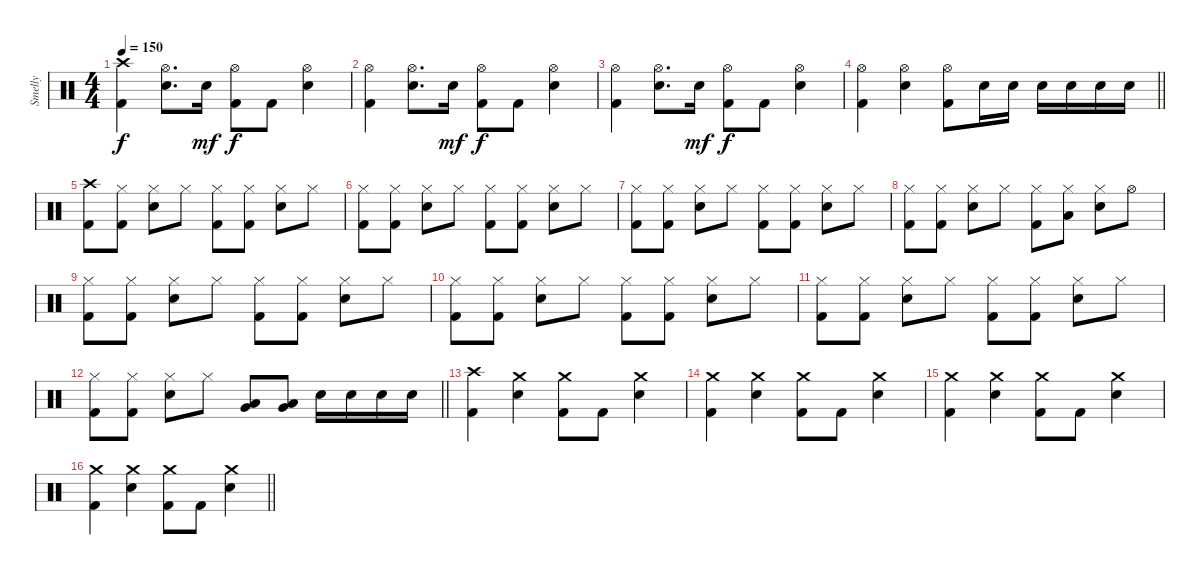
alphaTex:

\track ("Smelly" "Smelly") {instrument percussion}
\staff {score}
\articulation defaults
\ts (4 4)
\tempo 150
\clef neutral
\ks c
("Crash high (hit)" "Kick (hit) 2").4{dy f} ("Hi-Hat (open)" "Electric Snare (hit)").8{d} "Electric Snare (hit)".16{dy mf} ("Hi-Hat (open)" "Kick (hit) 2").8{dy f} "Kick (hit) 2".8 ("Hi-Hat (open)" "Electric Snare (hit)").4 |
("Hi-Hat (open)" "Kick (hit) 2").4 ("Hi-Hat (open)" "Electric Snare (hit)").8{d} "Electric Snare (hit)".16{dy mf} ("Hi-Hat (open)" "Kick (hit) 2").8{dy f} "Kick (hit) 2".8 ("Hi-Hat (open)" "Electric Snare (hit)").4 |
("Hi-Hat (open)" "Kick (hit) 2").4 ("Hi-Hat (open)" "Electric Snare (hit)").8{d} "Electric Snare (hit)".16{dy mf} ("Hi-Hat (open)" "Kick (hit) 2").8{dy f} "Kick (hit) 2".8 ("Hi-Hat (open)" "Electric Snare (hit)").4 |
\barLineRight lightlight
("Hi-Hat (open)" "Kick (hit) 2").4 ("Hi-Hat (open)" "Electric Snare (hit)").4 ("Hi-Hat (open)" "Kick (hit) 2").8 "Electric Snare (hit)".16 "Electric Snare (hit)".16 "Electric Snare (hit)".16 "Electric Snare (hit)".16 "Electric Snare (hit)".16 "Electric Snare (hit)".16 |
\section ("" "")
("Crash high (hit)" "Kick (hit) 2").8 ("Hi-Hat (closed)" "Kick (hit) 2").8 ("Hi-Hat (closed)" "Electric Snare (hit)").8 "Hi-Hat (closed)".8 ("Hi-Hat (closed)" "Kick (hit) 2").8 ("Hi-Hat (closed)" "Kick (hit) 2").8 ("Hi-Hat (closed)" "Electric Snare (hit)").8 "Hi-Hat (closed)".8 |
("Hi-Hat (closed)" "Kick (hit) 2").8 ("Hi-Hat (closed)" "Kick (hit) 2").8 ("Hi-Hat (closed)" "Electric Snare (hit)").8 "Hi-Hat (closed)".8 ("Hi-Hat (closed)" "Kick (hit) 2").8 ("Hi-Hat (closed)" "Kick (hit) 2").8 ("Hi-Hat (closed)" "Electric Snare (hit)").8 "Hi-Hat (closed)".8 |
("Hi-Hat (closed)" "Kick (hit) 2").8 ("Hi-Hat (closed)" "Kick (hit) 2").8 ("Hi-Hat (closed)" "Electric Snare (hit)").8 "Hi-Hat (closed)".8 ("Hi-Hat (closed)" "Kick (hit) 2").8 ("Hi-Hat (closed)" "Kick (hit) 2").8 ("Hi-Hat (closed)" "Electric Snare (hit)").8 "Hi-Hat (closed)".8 |
("Hi-Hat (closed)" "Kick (hit) 2").8 ("Hi-Hat (closed)" "Kick (hit) 2").8 ("Hi-Hat (closed)" "Electric Snare (hit)").8 "Hi-Hat (closed)".8 ("Hi-Hat (closed)" "Kick (hit) 2").8 ("Hi-Hat (closed)" "Low Tom (hit)").8 ("Hi-Hat (closed)" "Electric Snare (hit)").8 "Hi-Hat (open)".8 |
("Hi-Hat (closed)" "Kick (hit) 2").8 ("Hi-Hat (closed)" "Kick (hit) 2").8 ("Hi-Hat (closed)" "Electric Snare (hit)").8 "Hi-Hat (closed)".8 ("Hi-Hat (closed)" "Kick (hit) 2").8 ("Hi-Hat (closed)" "Kick (hit) 2").8 ("Hi-Hat (closed)" "Electric Snare (hit)").8 "Hi-Hat (closed)".8 |
("Hi-Hat (closed)" "Kick (hit) 2").8 ("Hi-Hat (closed)" "Kick (hit) 2").8 ("Hi-Hat (closed)" "Electric Snare (hit)").8 "Hi-Hat (closed)".8 ("Hi-Hat (closed)" "Kick (hit) 2").8 ("Hi-Hat (closed)" "Kick (hit) 2").8 ("Hi-Hat (closed)" "Electric Snare (hit)").8 "Hi-Hat (closed)".8 |
("Hi-Hat (closed)" "Kick (hit) 2").8 ("Hi-Hat (closed)" "Kick (hit) 2").8 ("Hi-Hat (closed)" "Electric Snare (hit)").8 "Hi-Hat (closed)".8 ("Hi-Hat (closed)" "Kick (hit) 2").8 ("Hi-Hat (closed)" "Kick (hit) 2").8 ("Hi-Hat (closed)" "Electric Snare (hit)").8 "Hi-Hat (closed)".8 |
\barLineRight lightlight
("Hi-Hat (closed)" "Kick (hit) 2").8 ("Hi-Hat (closed)" "Kick (hit) 2").8 ("Hi-Hat (closed)" "Electric Snare (hit)").8 "Hi-Hat (closed)".8 ("Very Low Tom (hit)" "Low Floor Tom (hit)").8 ("Very Low Tom (hit)" "Low Floor Tom (hit)").8 "Electric Snare (hit)".16 "Electric Snare (hit)".16 "Electric Snare (hit)".16 "Electric Snare (hit)".16 |
\section ("" "")
("Crash high (hit)" "Kick (hit) 2").4 ("Crash medium (hit)" "Electric Snare (hit)").4 ("Crash medium (hit)" "Kick (hit) 2").8 "Kick (hit) 2".8 ("Crash medium (hit)" "Electric Snare (hit)").4 |
("Crash medium (hit)" "Kick (hit) 2").4 ("Crash medium (hit)" "Electric Snare (hit)").4 ("Crash medium (hit)" "Kick (hit) 2").8 "Kick (hit) 2".8 ("Crash medium (hit)" "Electric Snare (hit)").4 |
("Crash medium (hit)" "Kick (hit) 2").4 ("Crash medium (hit)" "Electric Snare (hit)").4 ("Crash medium (hit)" "Kick (hit) 2").8 "Kick (hit) 2".8 ("Crash medium (hit)" "Electric Snare (hit)").4 |
\barLineRight lightlight
("Crash medium (hit)" "Kick (hit) 2").4 ("Crash medium (hit)" "Electric Snare (hit)").4 ("Crash medium (hit)" "Kick (hit) 2").8 "Kick (hit) 2".8 ("Crash medium (hit)" "Electric Snare (hit)").4
